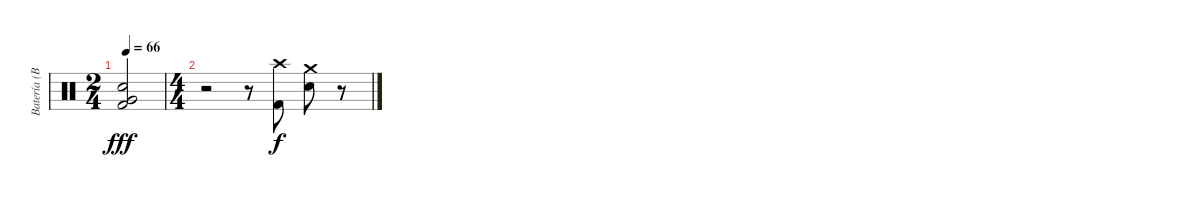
\track ("Batería (Brit Turner)" "Batería (B") {instrument percussion}
\staff {score}
\articulation defaults
\ts (2 4)
\tempo 66
\clef neutral
\ks c
("Snare (hit) 2" "Very Low Tom (hit)" "Kick (hit) 2").2{dy fff} |
\ts (4 4)
r.2 r.8 ("Crash high (hit)" "Kick (hit) 2").8{dy f} ("Crash medium (hit)" "Snare (hit) 2").8 r.8
